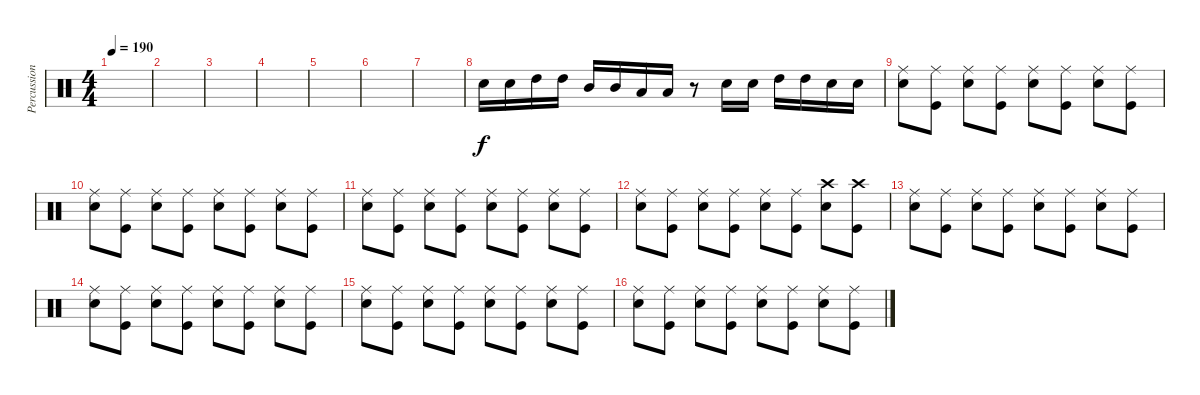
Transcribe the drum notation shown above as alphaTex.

\track ("Percussioni" "Percussion") {instrument percussion}
\staff {score}
\articulation defaults
\ts (4 4)
\tempo 190
\clef neutral
\ks c
|
|
|
|
|
|
|
"Electric Snare (hit)".16 "Electric Snare (hit)".16 "High Tom (hit)".16 "High Tom (hit)".16 "Mid Tom (hit)".16 "Mid Tom (hit)".16 "Low Tom (hit)".16 "Low Tom (hit)".16 r.8 "Electric Snare (hit)".16 "Electric Snare (hit)".16 "High Tom (hit)".16 "High Tom (hit)".16 "Snare (hit) 2".16 "Snare (hit) 2".16 |
("Ride (middle)" "Electric Snare (hit)").8 ("Ride (middle)" "Kick (hit)").8 ("Ride (middle)" "Electric Snare (hit)").8 ("Ride (middle)" "Kick (hit)").8 ("Ride (middle)" "Electric Snare (hit)").8 ("Ride (middle)" "Kick (hit)").8 ("Ride (middle)" "Electric Snare (hit)").8 ("Ride (middle)" "Kick (hit)").8 |
("Ride (middle)" "Electric Snare (hit)").8 ("Ride (middle)" "Kick (hit)").8 ("Ride (middle)" "Electric Snare (hit)").8 ("Ride (middle)" "Kick (hit)").8 ("Ride (middle)" "Electric Snare (hit)").8 ("Ride (middle)" "Kick (hit)").8 ("Ride (middle)" "Electric Snare (hit)").8 ("Ride (middle)" "Kick (hit)").8 |
("Ride (middle)" "Electric Snare (hit)").8 ("Ride (middle)" "Kick (hit)").8 ("Ride (middle)" "Electric Snare (hit)").8 ("Ride (middle)" "Kick (hit)").8 ("Ride (middle)" "Electric Snare (hit)").8 ("Ride (middle)" "Kick (hit)").8 ("Ride (middle)" "Electric Snare (hit)").8 ("Ride (middle)" "Kick (hit)").8 |
("Ride (middle)" "Electric Snare (hit)").8 ("Ride (middle)" "Kick (hit)").8 ("Ride (middle)" "Electric Snare (hit)").8 ("Ride (middle)" "Kick (hit)").8 ("Ride (middle)" "Electric Snare (hit)").8 ("Ride (middle)" "Kick (hit)").8 ("Crash high (hit)" "Electric Snare (hit)").8 ("Crash high (hit)" "Kick (hit)").8 |
("Ride (middle)" "Electric Snare (hit)").8 ("Ride (middle)" "Kick (hit)").8 ("Ride (middle)" "Electric Snare (hit)").8 ("Ride (middle)" "Kick (hit)").8 ("Ride (middle)" "Electric Snare (hit)").8 ("Ride (middle)" "Kick (hit)").8 ("Ride (middle)" "Electric Snare (hit)").8 ("Ride (middle)" "Kick (hit)").8 |
("Ride (middle)" "Electric Snare (hit)").8 ("Ride (middle)" "Kick (hit)").8 ("Ride (middle)" "Electric Snare (hit)").8 ("Ride (middle)" "Kick (hit)").8 ("Ride (middle)" "Electric Snare (hit)").8 ("Ride (middle)" "Kick (hit)").8 ("Ride (middle)" "Electric Snare (hit)").8 ("Ride (middle)" "Kick (hit)").8 |
("Ride (middle)" "Electric Snare (hit)").8 ("Ride (middle)" "Kick (hit)").8 ("Ride (middle)" "Electric Snare (hit)").8 ("Ride (middle)" "Kick (hit)").8 ("Ride (middle)" "Electric Snare (hit)").8 ("Ride (middle)" "Kick (hit)").8 ("Ride (middle)" "Electric Snare (hit)").8 ("Ride (middle)" "Kick (hit)").8 |
("Ride (middle)" "Electric Snare (hit)").8 ("Ride (middle)" "Kick (hit)").8 ("Ride (middle)" "Electric Snare (hit)").8 ("Ride (middle)" "Kick (hit)").8 ("Ride (middle)" "Electric Snare (hit)").8 ("Ride (middle)" "Kick (hit)").8 ("Ride (middle)" "Electric Snare (hit)").8 ("Ride (middle)" "Kick (hit)").8
